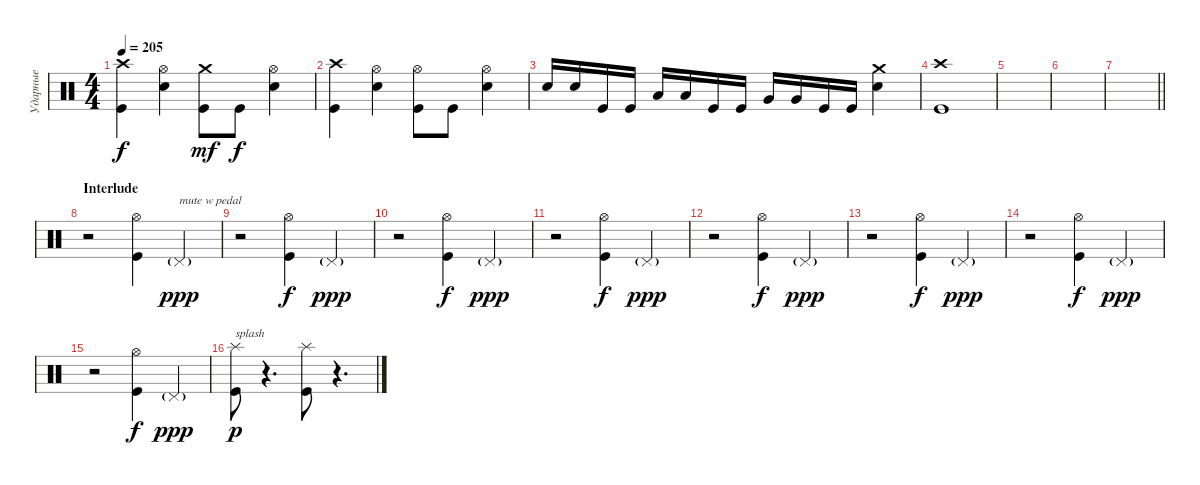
\track ("Ударные" "Ударные") {instrument percussion}
\staff {score}
\articulation defaults
\ts (4 4)
\tempo 205
\clef neutral
\ks aminor
("Kick (hit)" "Crash high (hit)").4{dy f} ("Snare (hit) 2" "Hi-Hat (open)").4 ("Kick (hit)" "Crash medium (hit)").8{dy mf} "Kick (hit)".8{dy f} ("Snare (hit) 2" "Hi-Hat (open)").4 |
("Kick (hit)" "Crash high (hit)").4 ("Snare (hit) 2" "Hi-Hat (open)").4 ("Kick (hit)" "Hi-Hat (open)").8 "Kick (hit)".8 ("Snare (hit) 2" "Hi-Hat (open)").4 |
"Snare (hit) 2".16 "Snare (hit) 2".16 "Kick (hit)".16 "Kick (hit)".16 "Low Tom (hit)".16 "Low Tom (hit)".16 "Kick (hit)".16 "Kick (hit)".16 "Very Low Tom (hit)".16 "Very Low Tom (hit)".16 "Kick (hit)".16 "Kick (hit)".16 ("Snare (hit) 2" "Crash medium (hit)").4 |
("Kick (hit)" "Crash high (hit)").1 |
|
|
\barLineRight lightlight
|
\section ("" "Interlude")
r.2 ("Kick (hit)" "Hi-Hat (open)").4 "Pedal Hi-Hat (hit)"{g}.4{txt "mute w pedal" dy ppp} |
r.2 ("Kick (hit)" "Hi-Hat (open)").4{dy f} "Pedal Hi-Hat (hit)"{g}.4{dy ppp} |
r.2 ("Kick (hit)" "Hi-Hat (open)").4{dy f} "Pedal Hi-Hat (hit)"{g}.4{dy ppp} |
r.2 ("Kick (hit)" "Hi-Hat (open)").4{dy f} "Pedal Hi-Hat (hit)"{g}.4{dy ppp} |
r.2 ("Kick (hit)" "Hi-Hat (open)").4{dy f} "Pedal Hi-Hat (hit)"{g}.4{dy ppp} |
r.2 ("Kick (hit)" "Hi-Hat (open)").4{dy f} "Pedal Hi-Hat (hit)"{g}.4{dy ppp} |
r.2 ("Kick (hit)" "Hi-Hat (open)").4{dy f} "Pedal Hi-Hat (hit)"{g}.4{dy ppp} |
r.2 ("Kick (hit)" "Hi-Hat (open)").4{dy f} "Pedal Hi-Hat (hit)"{g}.4{dy ppp} |
("Kick (hit)" "Splash (hit)").8{txt "splash" dy p} r.4{d} ("Kick (hit)" "Splash (hit)").8 r.4{d}
